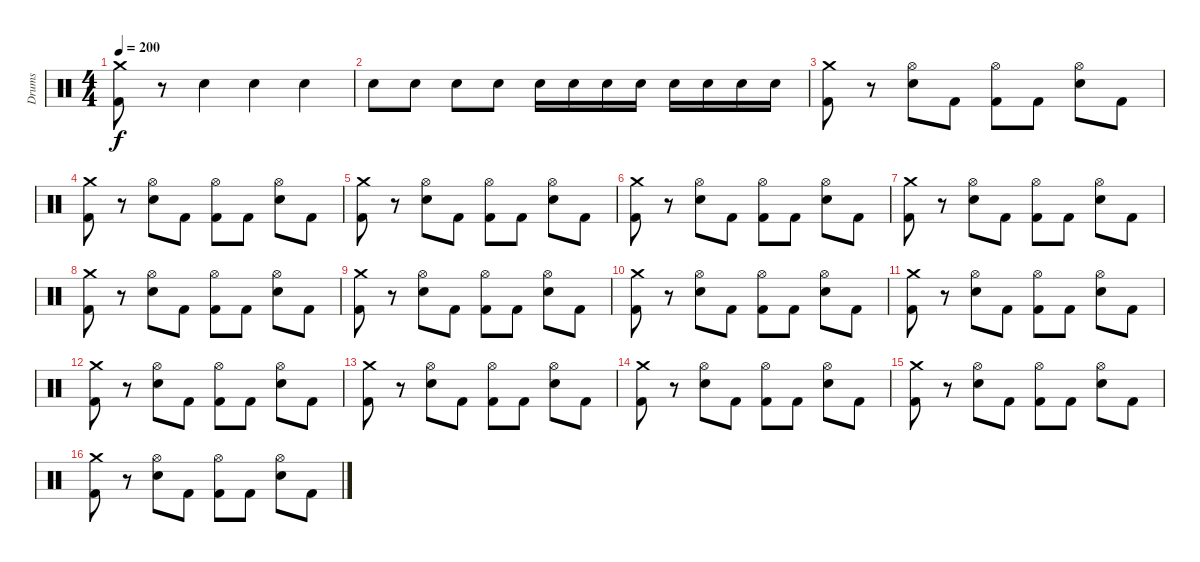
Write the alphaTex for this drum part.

\track ("Drums" "Drums") {instrument percussion}
\staff {score}
\articulation defaults
\ts (4 4)
\tempo 200
\clef neutral
\ks c
("Crash medium (hit)" "Kick (hit) 2").8{dy f} r.8 "Snare (hit) 2".4 "Snare (hit) 2".4 "Snare (hit) 2".4 |
"Snare (hit) 2".8 "Snare (hit) 2".8 "Snare (hit) 2".8 "Snare (hit) 2".8 "Snare (hit) 2".16 "Snare (hit) 2".16 "Snare (hit) 2".16 "Snare (hit) 2".16 "Snare (hit) 2".16 "Snare (hit) 2".16 "Snare (hit) 2".16 "Snare (hit) 2".16 |
("Crash medium (hit)" "Kick (hit) 2").8 r.8 ("Hi-Hat (open)" "Snare (hit) 2").8 "Kick (hit) 2".8 ("Hi-Hat (open)" "Kick (hit) 2").8 "Kick (hit) 2".8 ("Hi-Hat (open)" "Snare (hit) 2").8 "Kick (hit) 2".8 |
("Crash medium (hit)" "Kick (hit) 2").8 r.8 ("Hi-Hat (open)" "Snare (hit) 2").8 "Kick (hit) 2".8 ("Hi-Hat (open)" "Kick (hit) 2").8 "Kick (hit) 2".8 ("Hi-Hat (open)" "Snare (hit) 2").8 "Kick (hit) 2".8 |
("Crash medium (hit)" "Kick (hit) 2").8 r.8 ("Hi-Hat (open)" "Snare (hit) 2").8 "Kick (hit) 2".8 ("Hi-Hat (open)" "Kick (hit) 2").8 "Kick (hit) 2".8 ("Hi-Hat (open)" "Snare (hit) 2").8 "Kick (hit) 2".8 |
("Crash medium (hit)" "Kick (hit) 2").8 r.8 ("Hi-Hat (open)" "Snare (hit) 2").8 "Kick (hit) 2".8 ("Hi-Hat (open)" "Kick (hit) 2").8 "Kick (hit) 2".8 ("Hi-Hat (open)" "Snare (hit) 2").8 "Kick (hit) 2".8 |
("Crash medium (hit)" "Kick (hit) 2").8 r.8 ("Hi-Hat (open)" "Snare (hit) 2").8 "Kick (hit) 2".8 ("Hi-Hat (open)" "Kick (hit) 2").8 "Kick (hit) 2".8 ("Hi-Hat (open)" "Snare (hit) 2").8 "Kick (hit) 2".8 |
("Crash medium (hit)" "Kick (hit) 2").8 r.8 ("Hi-Hat (open)" "Snare (hit) 2").8 "Kick (hit) 2".8 ("Hi-Hat (open)" "Kick (hit) 2").8 "Kick (hit) 2".8 ("Hi-Hat (open)" "Snare (hit) 2").8 "Kick (hit) 2".8 |
("Crash medium (hit)" "Kick (hit) 2").8 r.8 ("Hi-Hat (open)" "Snare (hit) 2").8 "Kick (hit) 2".8 ("Hi-Hat (open)" "Kick (hit) 2").8 "Kick (hit) 2".8 ("Hi-Hat (open)" "Snare (hit) 2").8 "Kick (hit) 2".8 |
("Crash medium (hit)" "Kick (hit) 2").8 r.8 ("Hi-Hat (open)" "Snare (hit) 2").8 "Kick (hit) 2".8 ("Hi-Hat (open)" "Kick (hit) 2").8 "Kick (hit) 2".8 ("Hi-Hat (open)" "Snare (hit) 2").8 "Kick (hit) 2".8 |
("Crash medium (hit)" "Kick (hit) 2").8 r.8 ("Hi-Hat (open)" "Snare (hit) 2").8 "Kick (hit) 2".8 ("Hi-Hat (open)" "Kick (hit) 2").8 "Kick (hit) 2".8 ("Hi-Hat (open)" "Snare (hit) 2").8 "Kick (hit) 2".8 |
("Crash medium (hit)" "Kick (hit) 2").8 r.8 ("Hi-Hat (open)" "Snare (hit) 2").8 "Kick (hit) 2".8 ("Hi-Hat (open)" "Kick (hit) 2").8 "Kick (hit) 2".8 ("Hi-Hat (open)" "Snare (hit) 2").8 "Kick (hit) 2".8 |
("Crash medium (hit)" "Kick (hit) 2").8 r.8 ("Hi-Hat (open)" "Snare (hit) 2").8 "Kick (hit) 2".8 ("Hi-Hat (open)" "Kick (hit) 2").8 "Kick (hit) 2".8 ("Hi-Hat (open)" "Snare (hit) 2").8 "Kick (hit) 2".8 |
("Crash medium (hit)" "Kick (hit) 2").8 r.8 ("Hi-Hat (open)" "Snare (hit) 2").8 "Kick (hit) 2".8 ("Hi-Hat (open)" "Kick (hit) 2").8 "Kick (hit) 2".8 ("Hi-Hat (open)" "Snare (hit) 2").8 "Kick (hit) 2".8 |
("Crash medium (hit)" "Kick (hit) 2").8 r.8 ("Hi-Hat (open)" "Snare (hit) 2").8 "Kick (hit) 2".8 ("Hi-Hat (open)" "Kick (hit) 2").8 "Kick (hit) 2".8 ("Hi-Hat (open)" "Snare (hit) 2").8 "Kick (hit) 2".8 |
("Crash medium (hit)" "Kick (hit) 2").8 r.8 ("Hi-Hat (open)" "Snare (hit) 2").8 "Kick (hit) 2".8 ("Hi-Hat (open)" "Kick (hit) 2").8 "Kick (hit) 2".8 ("Hi-Hat (open)" "Snare (hit) 2").8 "Kick (hit) 2".8
